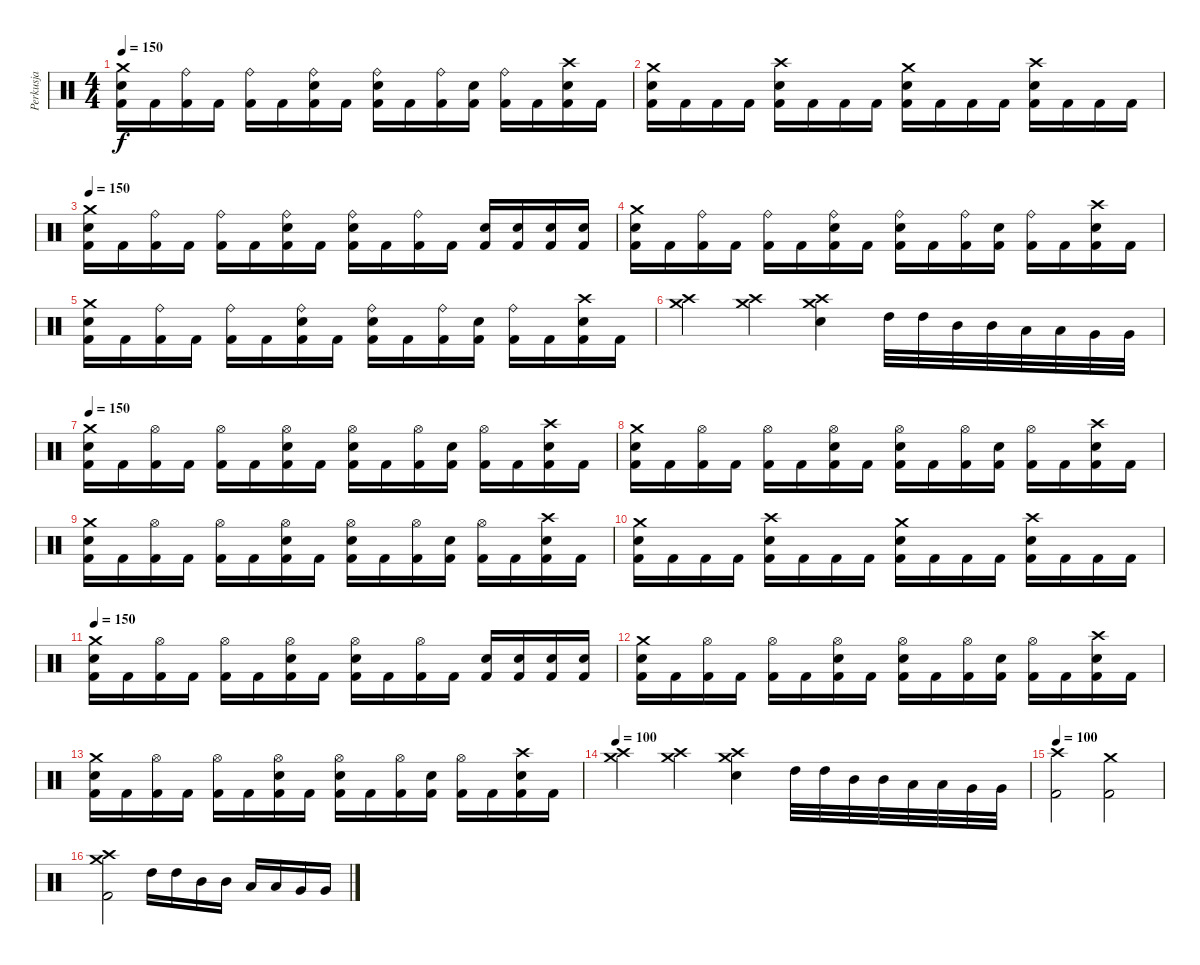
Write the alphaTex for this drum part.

\track ("Perkusja" "Perkusja") {instrument percussion}
\staff {score}
\articulation defaults
\ts (4 4)
\tempo 150
\clef neutral
\ks c
("Crash medium (hit)" "Electric Snare (hit)" "Kick (hit) 2").16{dy f} "Kick (hit) 2".16 ("Ride (bell)" "Kick (hit) 2").16 "Kick (hit) 2".16 ("Ride (bell)" "Kick (hit) 2").16 "Kick (hit) 2".16 ("Ride (bell)" "Electric Snare (hit)" "Kick (hit) 2").16 "Kick (hit) 2".16 ("Ride (bell)" "Electric Snare (hit)" "Kick (hit) 2").16 "Kick (hit) 2".16 ("Ride (bell)" "Kick (hit) 2").16 ("Electric Snare (hit)" "Kick (hit) 2").16 ("Ride (bell)" "Kick (hit) 2").16 "Kick (hit) 2".16 ("Crash high (hit)" "Electric Snare (hit)" "Kick (hit) 2").16 "Kick (hit) 2".16 |
("Crash medium (hit)" "Electric Snare (hit)" "Kick (hit) 2").16 "Kick (hit) 2".16 "Kick (hit) 2".16 "Kick (hit) 2".16 ("Crash high (hit)" "Electric Snare (hit)" "Kick (hit) 2").16 "Kick (hit) 2".16 "Kick (hit) 2".16 "Kick (hit) 2".16 ("Crash medium (hit)" "Electric Snare (hit)" "Kick (hit) 2").16 "Kick (hit) 2".16 "Kick (hit) 2".16 "Kick (hit) 2".16 ("Crash high (hit)" "Electric Snare (hit)" "Kick (hit) 2").16 "Kick (hit) 2".16 "Kick (hit) 2".16 "Kick (hit) 2".16 |
\tempo 150
("Crash medium (hit)" "Electric Snare (hit)" "Kick (hit) 2").16 "Kick (hit) 2".16 ("Ride (bell)" "Kick (hit) 2").16 "Kick (hit) 2".16 ("Ride (bell)" "Kick (hit) 2").16 "Kick (hit) 2".16 ("Ride (bell)" "Electric Snare (hit)" "Kick (hit) 2").16 "Kick (hit) 2".16 ("Ride (bell)" "Electric Snare (hit)" "Kick (hit) 2").16 "Kick (hit) 2".16 ("Ride (bell)" "Kick (hit) 2").16 "Kick (hit) 2".16 ("Electric Snare (hit)" "Kick (hit) 2").16 ("Electric Snare (hit)" "Kick (hit) 2").16 ("Electric Snare (hit)" "Kick (hit) 2").16 ("Electric Snare (hit)" "Kick (hit) 2").16 |
("Crash medium (hit)" "Electric Snare (hit)" "Kick (hit) 2").16 "Kick (hit) 2".16 ("Ride (bell)" "Kick (hit) 2").16 "Kick (hit) 2".16 ("Ride (bell)" "Kick (hit) 2").16 "Kick (hit) 2".16 ("Ride (bell)" "Electric Snare (hit)" "Kick (hit) 2").16 "Kick (hit) 2".16 ("Ride (bell)" "Electric Snare (hit)" "Kick (hit) 2").16 "Kick (hit) 2".16 ("Ride (bell)" "Kick (hit) 2").16 ("Electric Snare (hit)" "Kick (hit) 2").16 ("Ride (bell)" "Kick (hit) 2").16 "Kick (hit) 2".16 ("Crash high (hit)" "Electric Snare (hit)" "Kick (hit) 2").16 "Kick (hit) 2".16 |
("Crash medium (hit)" "Electric Snare (hit)" "Kick (hit) 2").16 "Kick (hit) 2".16 ("Ride (bell)" "Kick (hit) 2").16 "Kick (hit) 2".16 ("Ride (bell)" "Kick (hit) 2").16 "Kick (hit) 2".16 ("Ride (bell)" "Electric Snare (hit)" "Kick (hit) 2").16 "Kick (hit) 2".16 ("Ride (bell)" "Electric Snare (hit)" "Kick (hit) 2").16 "Kick (hit) 2".16 ("Ride (bell)" "Kick (hit) 2").16 ("Electric Snare (hit)" "Kick (hit) 2").16 ("Ride (bell)" "Kick (hit) 2").16 "Kick (hit) 2".16 ("Crash high (hit)" "Electric Snare (hit)" "Kick (hit) 2").16 "Kick (hit) 2".16 |
("Crash medium (hit)" "Crash high (hit)").4 ("Crash medium (hit)" "Crash high (hit)").4 ("Crash high (hit)" "Crash medium (hit)" "Electric Snare (hit)").4 "High Tom (hit)".32 "High Tom (hit)".32 "Mid Tom (hit)".32 "Mid Tom (hit)".32 "Low Tom (hit)".32 "Low Tom (hit)".32 "Very Low Tom (hit)".32 "Very Low Tom (hit)".32 |
\tempo 150
("Crash medium (hit)" "Electric Snare (hit)" "Kick (hit) 2").16 "Kick (hit) 2".16 ("Hi-Hat (open)" "Kick (hit) 2").16 "Kick (hit) 2".16 ("Hi-Hat (open)" "Kick (hit) 2").16 "Kick (hit) 2".16 ("Hi-Hat (open)" "Electric Snare (hit)" "Kick (hit) 2").16 "Kick (hit) 2".16 ("Hi-Hat (open)" "Electric Snare (hit)" "Kick (hit) 2").16 "Kick (hit) 2".16 ("Hi-Hat (open)" "Kick (hit) 2").16 ("Electric Snare (hit)" "Kick (hit) 2").16 ("Hi-Hat (open)" "Kick (hit) 2").16 "Kick (hit) 2".16 ("Crash high (hit)" "Electric Snare (hit)" "Kick (hit) 2").16 "Kick (hit) 2".16 |
("Crash medium (hit)" "Electric Snare (hit)" "Kick (hit) 2").16 "Kick (hit) 2".16 ("Hi-Hat (open)" "Kick (hit) 2").16 "Kick (hit) 2".16 ("Hi-Hat (open)" "Kick (hit) 2").16 "Kick (hit) 2".16 ("Hi-Hat (open)" "Electric Snare (hit)" "Kick (hit) 2").16 "Kick (hit) 2".16 ("Hi-Hat (open)" "Electric Snare (hit)" "Kick (hit) 2").16 "Kick (hit) 2".16 ("Hi-Hat (open)" "Kick (hit) 2").16 ("Electric Snare (hit)" "Kick (hit) 2").16 ("Hi-Hat (open)" "Kick (hit) 2").16 "Kick (hit) 2".16 ("Crash high (hit)" "Electric Snare (hit)" "Kick (hit) 2").16 "Kick (hit) 2".16 |
("Crash medium (hit)" "Electric Snare (hit)" "Kick (hit) 2").16 "Kick (hit) 2".16 ("Hi-Hat (open)" "Kick (hit) 2").16 "Kick (hit) 2".16 ("Hi-Hat (open)" "Kick (hit) 2").16 "Kick (hit) 2".16 ("Hi-Hat (open)" "Electric Snare (hit)" "Kick (hit) 2").16 "Kick (hit) 2".16 ("Hi-Hat (open)" "Electric Snare (hit)" "Kick (hit) 2").16 "Kick (hit) 2".16 ("Hi-Hat (open)" "Kick (hit) 2").16 ("Electric Snare (hit)" "Kick (hit) 2").16 ("Hi-Hat (open)" "Kick (hit) 2").16 "Kick (hit) 2".16 ("Crash high (hit)" "Electric Snare (hit)" "Kick (hit) 2").16 "Kick (hit) 2".16 |
("Crash medium (hit)" "Electric Snare (hit)" "Kick (hit) 2").16 "Kick (hit) 2".16 "Kick (hit) 2".16 "Kick (hit) 2".16 ("Crash high (hit)" "Electric Snare (hit)" "Kick (hit) 2").16 "Kick (hit) 2".16 "Kick (hit) 2".16 "Kick (hit) 2".16 ("Crash medium (hit)" "Electric Snare (hit)" "Kick (hit) 2").16 "Kick (hit) 2".16 "Kick (hit) 2".16 "Kick (hit) 2".16 ("Crash high (hit)" "Electric Snare (hit)" "Kick (hit) 2").16 "Kick (hit) 2".16 "Kick (hit) 2".16 "Kick (hit) 2".16 |
\tempo 150
("Crash medium (hit)" "Electric Snare (hit)" "Kick (hit) 2").16 "Kick (hit) 2".16 ("Hi-Hat (open)" "Kick (hit) 2").16 "Kick (hit) 2".16 ("Hi-Hat (open)" "Kick (hit) 2").16 "Kick (hit) 2".16 ("Hi-Hat (open)" "Electric Snare (hit)" "Kick (hit) 2").16 "Kick (hit) 2".16 ("Hi-Hat (open)" "Electric Snare (hit)" "Kick (hit) 2").16 "Kick (hit) 2".16 ("Hi-Hat (open)" "Kick (hit) 2").16 "Kick (hit) 2".16 ("Electric Snare (hit)" "Kick (hit) 2").16 ("Electric Snare (hit)" "Kick (hit) 2").16 ("Electric Snare (hit)" "Kick (hit) 2").16 ("Electric Snare (hit)" "Kick (hit) 2").16 |
("Crash medium (hit)" "Electric Snare (hit)" "Kick (hit) 2").16 "Kick (hit) 2".16 ("Hi-Hat (open)" "Kick (hit) 2").16 "Kick (hit) 2".16 ("Hi-Hat (open)" "Kick (hit) 2").16 "Kick (hit) 2".16 ("Hi-Hat (open)" "Electric Snare (hit)" "Kick (hit) 2").16 "Kick (hit) 2".16 ("Hi-Hat (open)" "Electric Snare (hit)" "Kick (hit) 2").16 "Kick (hit) 2".16 ("Hi-Hat (open)" "Kick (hit) 2").16 ("Electric Snare (hit)" "Kick (hit) 2").16 ("Hi-Hat (open)" "Kick (hit) 2").16 "Kick (hit) 2".16 ("Crash high (hit)" "Electric Snare (hit)" "Kick (hit) 2").16 "Kick (hit) 2".16 |
("Crash medium (hit)" "Electric Snare (hit)" "Kick (hit) 2").16 "Kick (hit) 2".16 ("Hi-Hat (open)" "Kick (hit) 2").16 "Kick (hit) 2".16 ("Hi-Hat (open)" "Kick (hit) 2").16 "Kick (hit) 2".16 ("Hi-Hat (open)" "Electric Snare (hit)" "Kick (hit) 2").16 "Kick (hit) 2".16 ("Hi-Hat (open)" "Electric Snare (hit)" "Kick (hit) 2").16 "Kick (hit) 2".16 ("Hi-Hat (open)" "Kick (hit) 2").16 ("Electric Snare (hit)" "Kick (hit) 2").16 ("Hi-Hat (open)" "Kick (hit) 2").16 "Kick (hit) 2".16 ("Crash high (hit)" "Electric Snare (hit)" "Kick (hit) 2").16 "Kick (hit) 2".16 |
\tempo 100
("Crash medium (hit)" "Crash high (hit)").4 ("Crash medium (hit)" "Crash high (hit)").4 ("Crash high (hit)" "Crash medium (hit)" "Electric Snare (hit)").4 "High Tom (hit)".32 "High Tom (hit)".32 "Mid Tom (hit)".32 "Mid Tom (hit)".32 "Low Tom (hit)".32 "Low Tom (hit)".32 "Very Low Tom (hit)".32 "Very Low Tom (hit)".32 |
\tempo 100
("Crash high (hit)" "Kick (hit) 2").2 ("Crash medium (hit)" "Kick (hit) 2").2 |
("Crash medium (hit)" "Crash high (hit)" "Kick (hit) 2").2 "High Tom (hit)".16 "High Tom (hit)".16 "Mid Tom (hit)".16 "Mid Tom (hit)".16 "Low Tom (hit)".16 "Low Tom (hit)".16 "Very Low Tom (hit)".16 "Very Low Tom (hit)".16
